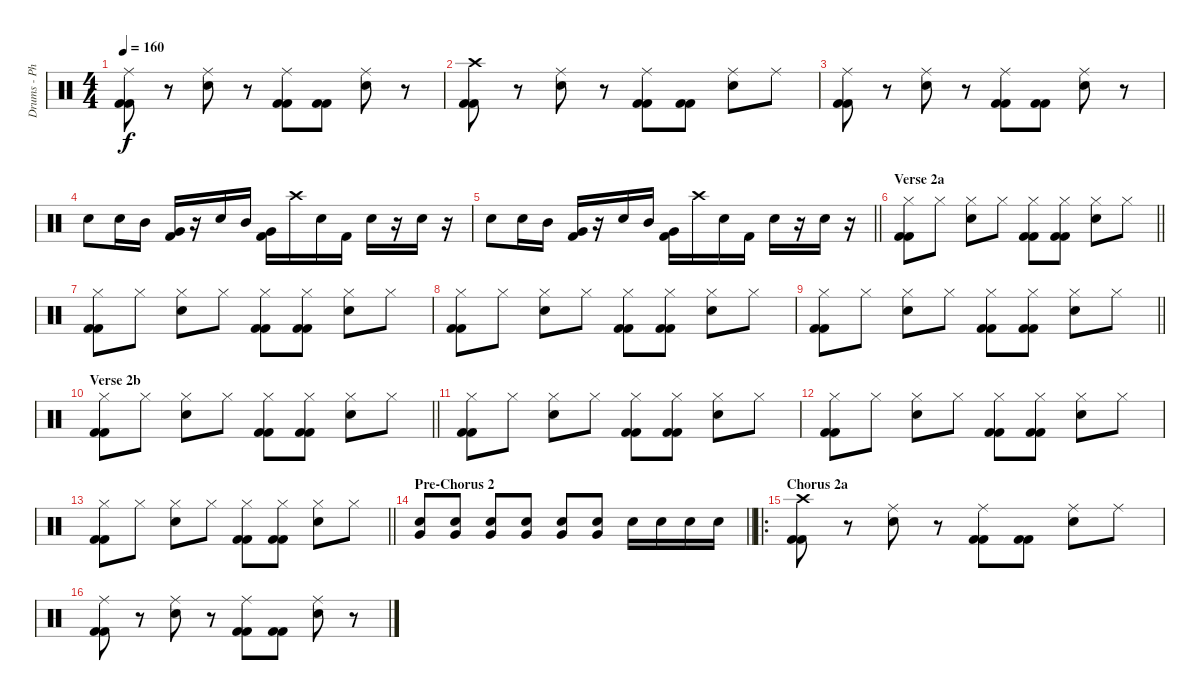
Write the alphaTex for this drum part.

\track ("Drums - Philipp Wirth" "Drums - Ph") {instrument percussion}
\staff {score}
\articulation defaults
\ts (4 4)
\tempo 160
\clef neutral
\ks c
("Ride (middle)" "Kick (hit) 2" "Kick (hit) 2").8{dy f} r.8 ("Ride (middle)" "Electric Snare (hit)").8 r.8 ("Ride (middle)" "Kick (hit) 2" "Kick (hit) 2").8 ("Kick (hit) 2" "Kick (hit) 2").8 ("Ride (middle)" "Electric Snare (hit)").8 r.8 |
("Crash high (hit)" "Kick (hit) 2" "Kick (hit) 2").8 r.8 ("Ride (middle)" "Electric Snare (hit)").8 r.8 ("Ride (middle)" "Kick (hit) 2" "Kick (hit) 2").8 ("Kick (hit) 2" "Kick (hit) 2").8 ("Ride (middle)" "Electric Snare (hit)").8 "Ride (middle)".8 |
("Ride (middle)" "Kick (hit) 2" "Kick (hit) 2").8 r.8 ("Ride (middle)" "Electric Snare (hit)").8 r.8 ("Ride (middle)" "Kick (hit) 2" "Kick (hit) 2").8 ("Kick (hit) 2" "Kick (hit) 2").8 ("Ride (middle)" "Electric Snare (hit)").8 r.8 |
"Electric Snare (hit)".8 "Electric Snare (hit)".16 "Mid Tom (hit)".16 ("Very Low Tom (hit)" "Kick (hit) 2").16 r.16 "Electric Snare (hit)".16 "Mid Tom (hit)".16 ("Very Low Tom (hit)" "Kick (hit) 2").16 "Crash high (hit)".16 "Electric Snare (hit)".16 "Kick (hit) 2".16 "Electric Snare (hit)".16 r.16 "Electric Snare (hit)".16 r.16 |
\barLineRight lightlight "Electric Snare (hit)".8 "Electric Snare (hit)".16 "Mid Tom (hit)".16
("Very Low Tom (hit)" "Kick (hit) 2").16 r.16 "Electric Snare (hit)".16 "Mid Tom (hit)".16 ("Very Low Tom (hit)" "Kick (hit) 2").16 "Crash high (hit)".16 "Electric Snare (hit)".16 "Kick (hit) 2".16 "Electric Snare (hit)".16 r.16 "Electric Snare (hit)".16 r.16 |
\section ("" "Verse 2a")
\barLineRight lightlight
("Hi-Hat (closed)" "Kick (hit) 2" "Kick (hit) 2").8 "Hi-Hat (closed)".8 ("Hi-Hat (closed)" "Electric Snare (hit)").8 "Hi-Hat (closed)".8 ("Hi-Hat (closed)" "Kick (hit) 2" "Kick (hit) 2").8 ("Hi-Hat (closed)" "Kick (hit) 2" "Kick (hit) 2").8 ("Hi-Hat (closed)" "Electric Snare (hit)").8 "Hi-Hat (closed)".8 |
("Hi-Hat (closed)" "Kick (hit) 2" "Kick (hit) 2").8 "Hi-Hat (closed)".8 ("Hi-Hat (closed)" "Electric Snare (hit)").8 "Hi-Hat (closed)".8 ("Hi-Hat (closed)" "Kick (hit) 2" "Kick (hit) 2").8 ("Hi-Hat (closed)" "Kick (hit) 2" "Kick (hit) 2").8 ("Hi-Hat (closed)" "Electric Snare (hit)").8 "Hi-Hat (closed)".8 |
("Hi-Hat (closed)" "Kick (hit) 2" "Kick (hit) 2").8 "Hi-Hat (closed)".8 ("Hi-Hat (closed)" "Electric Snare (hit)").8 "Hi-Hat (closed)".8 ("Hi-Hat (closed)" "Kick (hit) 2" "Kick (hit) 2").8 ("Hi-Hat (closed)" "Kick (hit) 2" "Kick (hit) 2").8 ("Hi-Hat (closed)" "Electric Snare (hit)").8 "Hi-Hat (closed)".8 |
\barLineRight lightlight
("Hi-Hat (closed)" "Kick (hit) 2" "Kick (hit) 2").8 "Hi-Hat (closed)".8 ("Hi-Hat (closed)" "Electric Snare (hit)").8 "Hi-Hat (closed)".8 ("Hi-Hat (closed)" "Kick (hit) 2" "Kick (hit) 2").8 ("Hi-Hat (closed)" "Kick (hit) 2" "Kick (hit) 2").8 ("Hi-Hat (closed)" "Electric Snare (hit)").8 "Hi-Hat (closed)".8 |
\section ("" "Verse 2b")
\barLineRight lightlight
("Hi-Hat (closed)" "Kick (hit) 2" "Kick (hit) 2").8 "Hi-Hat (closed)".8 ("Hi-Hat (closed)" "Electric Snare (hit)").8 "Hi-Hat (closed)".8 ("Hi-Hat (closed)" "Kick (hit) 2" "Kick (hit) 2").8 ("Hi-Hat (closed)" "Kick (hit) 2" "Kick (hit) 2").8 ("Hi-Hat (closed)" "Electric Snare (hit)").8 "Hi-Hat (closed)".8 |
("Hi-Hat (closed)" "Kick (hit) 2" "Kick (hit) 2").8 "Hi-Hat (closed)".8 ("Hi-Hat (closed)" "Electric Snare (hit)").8 "Hi-Hat (closed)".8 ("Hi-Hat (closed)" "Kick (hit) 2" "Kick (hit) 2").8 ("Hi-Hat (closed)" "Kick (hit) 2" "Kick (hit) 2").8 ("Hi-Hat (closed)" "Electric Snare (hit)").8 "Hi-Hat (closed)".8 |
("Hi-Hat (closed)" "Kick (hit) 2" "Kick (hit) 2").8 "Hi-Hat (closed)".8 ("Hi-Hat (closed)" "Electric Snare (hit)").8 "Hi-Hat (closed)".8 ("Hi-Hat (closed)" "Kick (hit) 2" "Kick (hit) 2").8 ("Hi-Hat (closed)" "Kick (hit) 2" "Kick (hit) 2").8 ("Hi-Hat (closed)" "Electric Snare (hit)").8 "Hi-Hat (closed)".8 |
\barLineRight lightlight
("Hi-Hat (closed)" "Kick (hit) 2" "Kick (hit) 2").8 "Hi-Hat (closed)".8 ("Hi-Hat (closed)" "Electric Snare (hit)").8 "Hi-Hat (closed)".8 ("Hi-Hat (closed)" "Kick (hit) 2" "Kick (hit) 2").8 ("Hi-Hat (closed)" "Kick (hit) 2" "Kick (hit) 2").8 ("Hi-Hat (closed)" "Electric Snare (hit)").8 "Hi-Hat (closed)".8 |
\section ("" "Pre-Chorus 2")
\barLineRight lightlight
("Electric Snare (hit)" "Very Low Tom (hit)").8 ("Electric Snare (hit)" "Very Low Tom (hit)").8 ("Electric Snare (hit)" "Very Low Tom (hit)").8 ("Electric Snare (hit)" "Very Low Tom (hit)").8 ("Electric Snare (hit)" "Very Low Tom (hit)").8 ("Electric Snare (hit)" "Very Low Tom (hit)").8 "Electric Snare (hit)".16 "Electric Snare (hit)".16 "Electric Snare (hit)".16 "Electric Snare (hit)".16 |
\ro
\section ("" "Chorus 2a")
("Crash high (hit)" "Kick (hit) 2" "Kick (hit) 2").8 r.8 ("Ride (middle)" "Electric Snare (hit)").8 r.8 ("Ride (middle)" "Kick (hit) 2" "Kick (hit) 2").8 ("Kick (hit) 2" "Kick (hit) 2").8 ("Ride (middle)" "Electric Snare (hit)").8 "Ride (middle)".8 |
("Ride (middle)" "Kick (hit) 2" "Kick (hit) 2").8 r.8 ("Ride (middle)" "Electric Snare (hit)").8 r.8 ("Ride (middle)" "Kick (hit) 2" "Kick (hit) 2").8 ("Kick (hit) 2" "Kick (hit) 2").8 ("Ride (middle)" "Electric Snare (hit)").8 r.8
